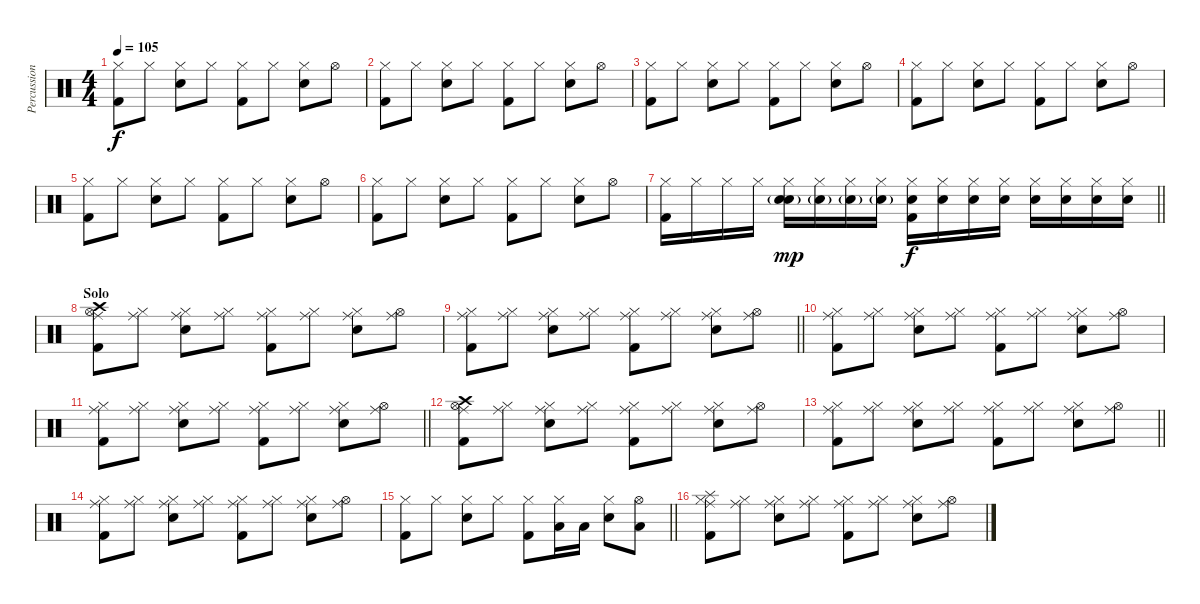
\track ("Percussion" "Percussion") {instrument percussion}
\staff {score}
\articulation defaults
\ts (4 4)
\tempo 105
\clef neutral
\ks c
("Kick (hit) 2" "Hi-Hat (closed)").8{dy f} "Hi-Hat (closed)".8 ("Snare (hit) 2" "Hi-Hat (closed)").8 "Hi-Hat (closed)".8 ("Kick (hit) 2" "Hi-Hat (closed)").8 "Hi-Hat (closed)".8 ("Snare (hit) 2" "Hi-Hat (closed)").8 "Hi-Hat (open)".8 |
("Kick (hit) 2" "Hi-Hat (closed)").8 "Hi-Hat (closed)".8 ("Snare (hit) 2" "Hi-Hat (closed)").8 "Hi-Hat (closed)".8 ("Kick (hit) 2" "Hi-Hat (closed)").8 "Hi-Hat (closed)".8 ("Snare (hit) 2" "Hi-Hat (closed)").8 "Hi-Hat (open)".8 |
("Kick (hit) 2" "Hi-Hat (closed)").8 "Hi-Hat (closed)".8 ("Snare (hit) 2" "Hi-Hat (closed)").8 "Hi-Hat (closed)".8 ("Kick (hit) 2" "Hi-Hat (closed)").8 "Hi-Hat (closed)".8 ("Snare (hit) 2" "Hi-Hat (closed)").8 "Hi-Hat (open)".8 |
("Kick (hit) 2" "Hi-Hat (closed)").8 "Hi-Hat (closed)".8 ("Snare (hit) 2" "Hi-Hat (closed)").8 "Hi-Hat (closed)".8 ("Kick (hit) 2" "Hi-Hat (closed)").8 "Hi-Hat (closed)".8 ("Snare (hit) 2" "Hi-Hat (closed)").8 "Hi-Hat (open)".8 |
("Kick (hit) 2" "Hi-Hat (closed)").8 "Hi-Hat (closed)".8 ("Snare (hit) 2" "Hi-Hat (closed)").8 "Hi-Hat (closed)".8 ("Kick (hit) 2" "Hi-Hat (closed)").8 "Hi-Hat (closed)".8 ("Snare (hit) 2" "Hi-Hat (closed)").8 "Hi-Hat (open)".8 |
("Kick (hit) 2" "Hi-Hat (closed)").8 "Hi-Hat (closed)".8 ("Snare (hit) 2" "Hi-Hat (closed)").8 "Hi-Hat (closed)".8 ("Kick (hit) 2" "Hi-Hat (closed)").8 "Hi-Hat (closed)".8 ("Snare (hit) 2" "Hi-Hat (closed)").8 "Hi-Hat (open)".8 |
\barLineRight lightlight
("Hi-Hat (closed)" "Kick (hit) 2").16 "Hi-Hat (closed)".16 "Hi-Hat (closed)".16 "Hi-Hat (closed)".16 ("Snare (hit) 2"{g} "Hi-Hat (closed)" "Snare (hit) 2").16{dy mp} ("Snare (hit) 2"{g} "Hi-Hat (closed)").16 ("Snare (hit) 2"{g} "Hi-Hat (closed)").16 ("Snare (hit) 2"{g} "Hi-Hat (closed)").16 ("Snare (hit) 2" "Hi-Hat (closed)" "Kick (hit) 2").16{dy f} ("Snare (hit) 2" "Hi-Hat (closed)").16 ("Snare (hit) 2" "Hi-Hat (closed)").16 ("Snare (hit) 2" "Hi-Hat (closed)").16 ("Snare (hit) 2" "Hi-Hat (closed)").16 ("Snare (hit) 2" "Hi-Hat (closed)").16 ("Snare (hit) 2" "Hi-Hat (closed)").16 ("Snare (hit) 2" "Hi-Hat (closed)").16 |
\section ("" "Solo")
("Ride (middle)" "Hi-Hat (open)" "Kick (hit) 2" "Crash high (hit)").8 ("Ride (middle)" "Hi-Hat (closed)").8 ("Ride (middle)" "Snare (hit) 2" "Hi-Hat (closed)").8 ("Ride (middle)" "Hi-Hat (closed)").8 ("Ride (middle)" "Kick (hit) 2" "Hi-Hat (closed)").8 ("Ride (middle)" "Hi-Hat (closed)").8 ("Ride (middle)" "Snare (hit) 2" "Hi-Hat (closed)").8 ("Ride (middle)" "Hi-Hat (open)").8 |
\barLineRight lightlight
("Ride (middle)" "Kick (hit) 2" "Hi-Hat (closed)").8 ("Ride (middle)" "Hi-Hat (closed)").8 ("Ride (middle)" "Snare (hit) 2" "Hi-Hat (closed)").8 ("Ride (middle)" "Hi-Hat (closed)").8 ("Ride (middle)" "Kick (hit) 2" "Hi-Hat (closed)").8 ("Ride (middle)" "Hi-Hat (closed)").8 ("Ride (middle)" "Snare (hit) 2" "Hi-Hat (closed)").8 ("Ride (middle)" "Hi-Hat (open)").8 |
("Ride (middle)" "Kick (hit) 2" "Hi-Hat (closed)").8 ("Ride (middle)" "Hi-Hat (closed)").8 ("Ride (middle)" "Snare (hit) 2" "Hi-Hat (closed)").8 ("Ride (middle)" "Hi-Hat (closed)").8 ("Ride (middle)" "Kick (hit) 2" "Hi-Hat (closed)").8 ("Ride (middle)" "Hi-Hat (closed)").8 ("Ride (middle)" "Snare (hit) 2" "Hi-Hat (closed)").8 ("Ride (middle)" "Hi-Hat (open)").8 |
\barLineRight lightlight
("Ride (middle)" "Kick (hit) 2" "Hi-Hat (closed)").8 ("Ride (middle)" "Hi-Hat (closed)").8 ("Ride (middle)" "Snare (hit) 2" "Hi-Hat (closed)").8 ("Ride (middle)" "Hi-Hat (closed)").8 ("Ride (middle)" "Kick (hit) 2" "Hi-Hat (closed)").8 ("Ride (middle)" "Hi-Hat (closed)").8 ("Ride (middle)" "Snare (hit) 2" "Hi-Hat (closed)").8 ("Ride (middle)" "Hi-Hat (open)").8 |
("Ride (middle)" "Hi-Hat (open)" "Kick (hit) 2" "Crash high (hit)").8 ("Ride (middle)" "Hi-Hat (closed)").8 ("Ride (middle)" "Snare (hit) 2" "Hi-Hat (closed)").8 ("Ride (middle)" "Hi-Hat (closed)").8 ("Ride (middle)" "Kick (hit) 2" "Hi-Hat (closed)").8 ("Ride (middle)" "Hi-Hat (closed)").8 ("Ride (middle)" "Snare (hit) 2" "Hi-Hat (closed)").8 ("Ride (middle)" "Hi-Hat (open)").8 |
\barLineRight lightlight
("Ride (middle)" "Kick (hit) 2" "Hi-Hat (closed)").8 ("Ride (middle)" "Hi-Hat (closed)").8 ("Ride (middle)" "Snare (hit) 2" "Hi-Hat (closed)").8 ("Ride (middle)" "Hi-Hat (closed)").8 ("Ride (middle)" "Kick (hit) 2" "Hi-Hat (closed)").8 ("Ride (middle)" "Hi-Hat (closed)").8 ("Ride (middle)" "Snare (hit) 2" "Hi-Hat (closed)").8 ("Ride (middle)" "Hi-Hat (open)").8 |
("Ride (middle)" "Kick (hit) 2" "Hi-Hat (closed)").8 ("Ride (middle)" "Hi-Hat (closed)").8 ("Ride (middle)" "Snare (hit) 2" "Hi-Hat (closed)").8 ("Ride (middle)" "Hi-Hat (closed)").8 ("Ride (middle)" "Kick (hit) 2" "Hi-Hat (closed)").8 ("Ride (middle)" "Hi-Hat (closed)").8 ("Ride (middle)" "Snare (hit) 2" "Hi-Hat (closed)").8 ("Ride (middle)" "Hi-Hat (open)").8 |
\barLineRight lightlight
("Kick (hit) 2" "Hi-Hat (closed)").8 "Hi-Hat (closed)".8 ("Snare (hit) 2" "Hi-Hat (closed)").8 "Hi-Hat (closed)".8 ("Kick (hit) 2" "Hi-Hat (closed)").8 ("Low Tom (hit)" "Hi-Hat (closed)").16 "Low Tom (hit)".16 ("Snare (hit) 2" "Hi-Hat (closed)").8 ("Hi-Hat (open)" "Low Tom (hit)").8 |
("Splash (hit)" "Ride (middle)" "Kick (hit) 2" "Hi-Hat (closed)").8 ("Ride (middle)" "Hi-Hat (closed)").8 ("Ride (middle)" "Snare (hit) 2" "Hi-Hat (closed)").8 ("Ride (middle)" "Hi-Hat (closed)").8 ("Ride (middle)" "Kick (hit) 2" "Hi-Hat (closed)").8 ("Ride (middle)" "Hi-Hat (closed)").8 ("Ride (middle)" "Snare (hit) 2" "Hi-Hat (closed)").8 ("Ride (middle)" "Hi-Hat (open)").8
